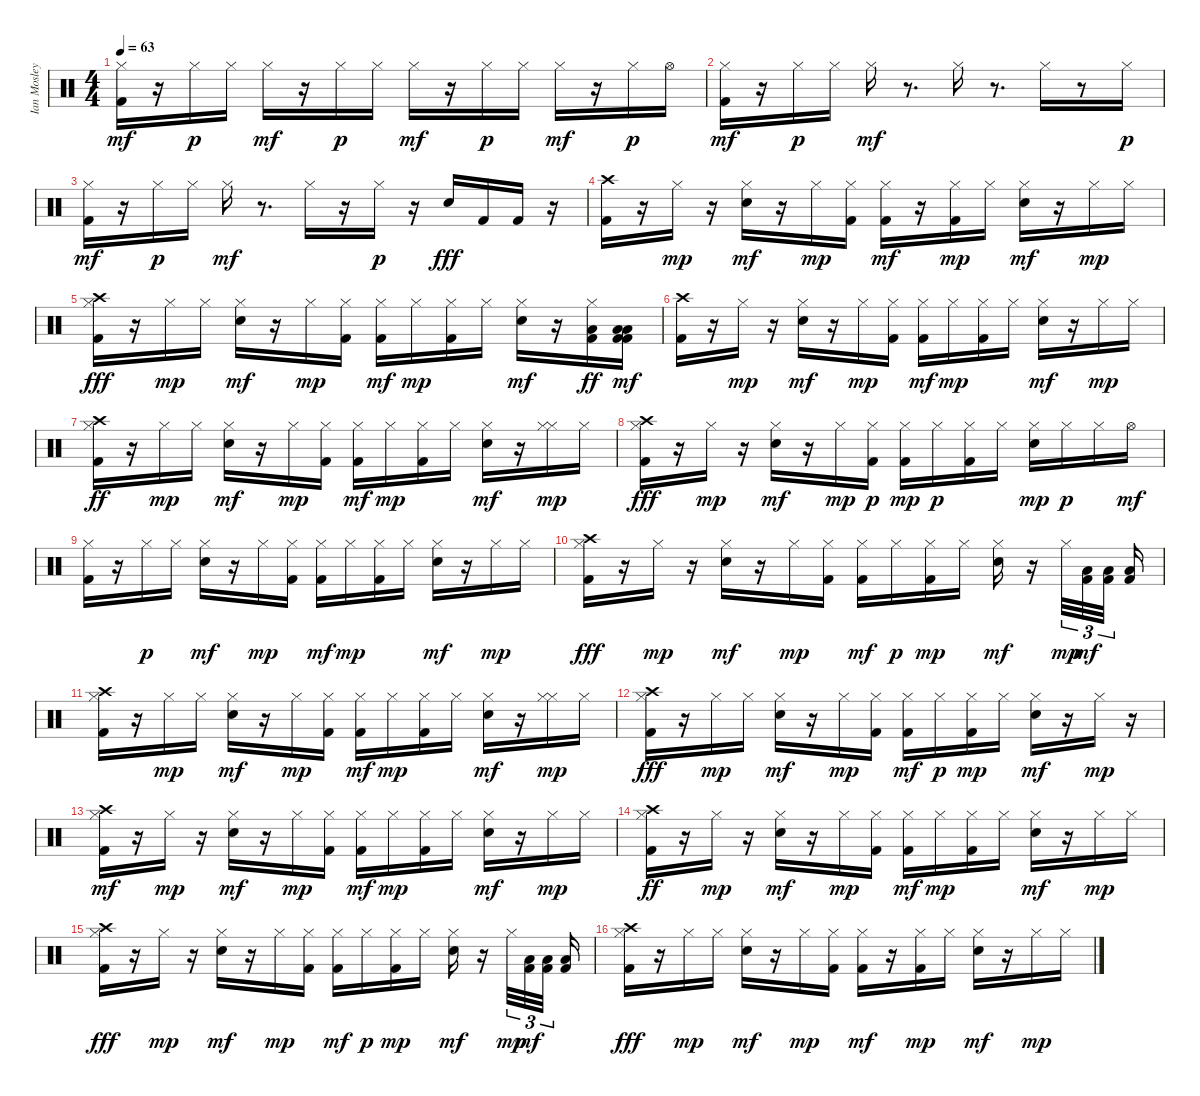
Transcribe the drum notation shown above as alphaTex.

\track ("Ian Mosley" "Ian Mosley") {instrument percussion}
\staff {score}
\articulation defaults
\ts (4 4)
\tempo 63
\clef neutral
\ks c
("Kick (hit) 2" "Hi-Hat (closed)").16{dy mf} r.16 "Hi-Hat (closed)".16{dy p} "Hi-Hat (closed)".16 "Hi-Hat (closed)".16{dy mf} r.16 "Hi-Hat (closed)".16{dy p} "Hi-Hat (closed)".16 "Hi-Hat (closed)".16{dy mf} r.16 "Hi-Hat (closed)".16{dy p} "Hi-Hat (closed)".16 "Hi-Hat (closed)".16{dy mf} r.16 "Hi-Hat (closed)".16{dy p} "Hi-Hat (open)".16 |
("Kick (hit) 2" "Hi-Hat (closed)").16{dy mf} r.16 "Hi-Hat (closed)".16{dy p} "Hi-Hat (closed)".16 "Hi-Hat (closed)".16{dy mf} r.8{d} "Hi-Hat (closed)".16 r.8{d} "Hi-Hat (closed)".16 r.8 "Hi-Hat (closed)".16{dy p} |
("Kick (hit) 2" "Hi-Hat (closed)").16{dy mf} r.16 "Hi-Hat (closed)".16{dy p} "Hi-Hat (closed)".16 "Hi-Hat (closed)".16{dy mf} r.8{d} "Hi-Hat (closed)".16 r.16 "Hi-Hat (closed)".16{dy p} r.16 "Snare (hit) 2".16{dy fff} "Kick (hit) 2".16 "Kick (hit) 2".16 r.16 |
("Kick (hit) 2" "Crash high (hit)").16 r.16 "Hi-Hat (closed)".16{dy mp} r.16 ("Snare (hit) 2" "Hi-Hat (closed)").16{dy mf} r.16 "Hi-Hat (closed)".16{dy mp} ("Kick (hit) 2" "Hi-Hat (closed)").16 ("Kick (hit) 2" "Hi-Hat (closed)").16{dy mf} r.16 ("Kick (hit) 2" "Hi-Hat (closed)").16{dy mp} "Hi-Hat (closed)".16 ("Snare (hit) 2" "Hi-Hat (closed)").16{dy mf} r.16 "Hi-Hat (closed)".16{dy mp} "Hi-Hat (closed)".16 |
("Kick (hit) 2" "Hi-Hat (closed)" "Crash high (hit)").16{dy fff} r.16 "Hi-Hat (closed)".16{dy mp} "Hi-Hat (closed)".16 ("Snare (hit) 2" "Hi-Hat (closed)").16{dy mf} r.16 "Hi-Hat (closed)".16{dy mp} ("Kick (hit) 2" "Hi-Hat (closed)").16 ("Kick (hit) 2" "Hi-Hat (closed)").16{dy mf} "Hi-Hat (closed)".16{dy mp} ("Kick (hit) 2" "Hi-Hat (closed)").16 "Hi-Hat (closed)".16 ("Snare (hit) 2" "Hi-Hat (closed)").16{dy mf} r.16 ("Hi-Hat (closed)" "Kick (hit) 2" "Low Floor Tom (hit)").16{dy ff} ("Kick (hit) 2" "Low Floor Tom (hit)" "Kick (hit) 2" "Low Floor Tom (hit)").16{dy mf} |
("Kick (hit) 2" "Crash high (hit)").16 r.16 "Hi-Hat (closed)".16{dy mp} r.16 ("Snare (hit) 2" "Hi-Hat (closed)").16{dy mf} r.16 "Hi-Hat (closed)".16{dy mp} ("Kick (hit) 2" "Hi-Hat (closed)").16 ("Kick (hit) 2" "Hi-Hat (closed)").16{dy mf} "Hi-Hat (closed)".16{dy mp} ("Kick (hit) 2" "Hi-Hat (closed)").16 "Hi-Hat (closed)".16 ("Snare (hit) 2" "Hi-Hat (closed)").16{dy mf} r.16 "Hi-Hat (closed)".16{dy mp} "Hi-Hat (closed)".16 |
("Kick (hit) 2" "Hi-Hat (closed)" "Crash high (hit)").16{dy ff} r.16 "Hi-Hat (closed)".16{dy mp} "Hi-Hat (closed)".16 ("Snare (hit) 2" "Hi-Hat (closed)").16{dy mf} r.16 "Hi-Hat (closed)".16{dy mp} ("Kick (hit) 2" "Hi-Hat (closed)").16 ("Kick (hit) 2" "Hi-Hat (closed)").16{dy mf} "Hi-Hat (closed)".16{dy mp} ("Kick (hit) 2" "Hi-Hat (closed)").16 "Hi-Hat (closed)".16 ("Snare (hit) 2" "Hi-Hat (closed)").16{dy mf} r.16 ("Hi-Hat (closed)" "Hi-Hat (closed)").16{dy mp} "Hi-Hat (closed)".16 |
("Kick (hit) 2" "Hi-Hat (closed)" "Crash high (hit)").16{dy fff} r.16 "Hi-Hat (closed)".16{dy mp} r.16 ("Snare (hit) 2" "Hi-Hat (closed)").16{dy mf} r.16 "Hi-Hat (closed)".16{dy mp} ("Kick (hit) 2" "Hi-Hat (closed)").16{dy p} ("Kick (hit) 2" "Hi-Hat (closed)").16{dy mp} "Hi-Hat (closed)".16{dy p} ("Kick (hit) 2" "Hi-Hat (closed)").16 "Hi-Hat (closed)".16 ("Snare (hit) 2" "Hi-Hat (closed)").16{dy mp} "Hi-Hat (closed)".16{dy p} "Hi-Hat (closed)".16 "Hi-Hat (open)".16{dy mf} |
("Kick (hit) 2" "Hi-Hat (closed)").16 r.16 "Hi-Hat (closed)".16{dy p} "Hi-Hat (closed)".16 ("Snare (hit) 2" "Hi-Hat (closed)").16{dy mf} r.16 "Hi-Hat (closed)".16{dy mp} ("Kick (hit) 2" "Hi-Hat (closed)").16 ("Kick (hit) 2" "Hi-Hat (closed)").16{dy mf} "Hi-Hat (closed)".16{dy mp} ("Kick (hit) 2" "Hi-Hat (closed)").16 "Hi-Hat (closed)".16 ("Snare (hit) 2" "Hi-Hat (closed)").16{dy mf} r.16 "Hi-Hat (closed)".16{dy mp} "Hi-Hat (closed)".16 |
("Kick (hit) 2" "Hi-Hat (closed)" "Crash high (hit)").16{dy fff} r.16 "Hi-Hat (closed)".16{dy mp} r.16 ("Snare (hit) 2" "Hi-Hat (closed)").16{dy mf} r.16 "Hi-Hat (closed)".16{dy mp} ("Kick (hit) 2" "Hi-Hat (closed)").16 ("Kick (hit) 2" "Hi-Hat (closed)").16{dy mf} "Hi-Hat (closed)".16{dy p} ("Kick (hit) 2" "Hi-Hat (closed)").16{dy mp} "Hi-Hat (closed)".16 ("Snare (hit) 2" "Hi-Hat (closed)").16{dy mf} r.16 "Hi-Hat (closed)".32{tu (3 2) dy mp} ("Kick (hit) 2" "Low Tom (hit)").32{tu (3 2) dy mf} ("Kick (hit) 2" "Low Floor Tom (hit)").32{tu (3 2) beam splitsecondary} ("Kick (hit) 2" "Low Floor Tom (hit)").16 |
("Kick (hit) 2" "Hi-Hat (closed)" "Crash high (hit)").16 r.16 "Hi-Hat (closed)".16{dy mp} "Hi-Hat (closed)".16 ("Snare (hit) 2" "Hi-Hat (closed)").16{dy mf} r.16 "Hi-Hat (closed)".16{dy mp} ("Kick (hit) 2" "Hi-Hat (closed)").16 ("Kick (hit) 2" "Hi-Hat (closed)").16{dy mf} "Hi-Hat (closed)".16{dy mp} ("Kick (hit) 2" "Hi-Hat (closed)").16 "Hi-Hat (closed)".16 ("Snare (hit) 2" "Hi-Hat (closed)").16{dy mf} r.16 ("Hi-Hat (closed)" "Hi-Hat (closed)").16{dy mp} "Hi-Hat (closed)".16 |
("Kick (hit) 2" "Hi-Hat (closed)" "Crash high (hit)").16{dy fff} r.16 "Hi-Hat (closed)".16{dy mp} "Hi-Hat (closed)".16 ("Snare (hit) 2" "Hi-Hat (closed)").16{dy mf} r.16 "Hi-Hat (closed)".16{dy mp} ("Kick (hit) 2" "Hi-Hat (closed)").16 ("Kick (hit) 2" "Hi-Hat (closed)").16{dy mf} "Hi-Hat (closed)".16{dy p} ("Kick (hit) 2" "Hi-Hat (closed)").16{dy mp} "Hi-Hat (closed)".16 ("Snare (hit) 2" "Hi-Hat (closed)").16{dy mf} r.16 "Hi-Hat (closed)".16{dy mp} r.16 |
("Kick (hit) 2" "Hi-Hat (closed)" "Crash high (hit)").16{dy mf} r.16 "Hi-Hat (closed)".16{dy mp} r.16 ("Snare (hit) 2" "Hi-Hat (closed)").16{dy mf} r.16 "Hi-Hat (closed)".16{dy mp} ("Kick (hit) 2" "Hi-Hat (closed)").16 ("Kick (hit) 2" "Hi-Hat (closed)").16{dy mf} "Hi-Hat (closed)".16{dy mp} ("Kick (hit) 2" "Hi-Hat (closed)").16 "Hi-Hat (closed)".16 ("Snare (hit) 2" "Hi-Hat (closed)").16{dy mf} r.16 "Hi-Hat (closed)".16{dy mp} "Hi-Hat (closed)".16 |
("Kick (hit) 2" "Hi-Hat (closed)" "Crash high (hit)").16{dy ff} r.16 "Hi-Hat (closed)".16{dy mp} r.16 ("Snare (hit) 2" "Hi-Hat (closed)").16{dy mf} r.16 "Hi-Hat (closed)".16{dy mp} ("Kick (hit) 2" "Hi-Hat (closed)").16 ("Kick (hit) 2" "Hi-Hat (closed)").16{dy mf} "Hi-Hat (closed)".16{dy mp} ("Kick (hit) 2" "Hi-Hat (closed)").16 "Hi-Hat (closed)".16 ("Snare (hit) 2" "Hi-Hat (closed)").16{dy mf} r.16 "Hi-Hat (closed)".16{dy mp} "Hi-Hat (closed)".16 |
("Kick (hit) 2" "Hi-Hat (closed)" "Crash high (hit)").16{dy fff} r.16 "Hi-Hat (closed)".16{dy mp} r.16 ("Snare (hit) 2" "Hi-Hat (closed)").16{dy mf} r.16 "Hi-Hat (closed)".16{dy mp} ("Kick (hit) 2" "Hi-Hat (closed)").16 ("Kick (hit) 2" "Hi-Hat (closed)").16{dy mf} "Hi-Hat (closed)".16{dy p} ("Kick (hit) 2" "Hi-Hat (closed)").16{dy mp} "Hi-Hat (closed)".16 ("Snare (hit) 2" "Hi-Hat (closed)").16{dy mf} r.16 "Hi-Hat (closed)".32{tu (3 2) dy mp} ("Kick (hit) 2" "Low Tom (hit)").32{tu (3 2) dy mf} ("Kick (hit) 2" "Low Floor Tom (hit)").32{tu (3 2) beam splitsecondary} ("Kick (hit) 2" "Low Floor Tom (hit)").16 |
("Kick (hit) 2" "Hi-Hat (closed)" "Crash high (hit)").16{dy fff} r.16 "Hi-Hat (closed)".16{dy mp} "Hi-Hat (closed)".16 ("Snare (hit) 2" "Hi-Hat (closed)").16{dy mf} r.16 "Hi-Hat (closed)".16{dy mp} ("Kick (hit) 2" "Hi-Hat (closed)").16 ("Kick (hit) 2" "Hi-Hat (closed)").16{dy mf} r.16 ("Kick (hit) 2" "Hi-Hat (closed)").16{dy mp} "Hi-Hat (closed)".16 ("Snare (hit) 2" "Hi-Hat (closed)").16{dy mf} r.16 "Hi-Hat (closed)".16{dy mp} "Hi-Hat (closed)".16
